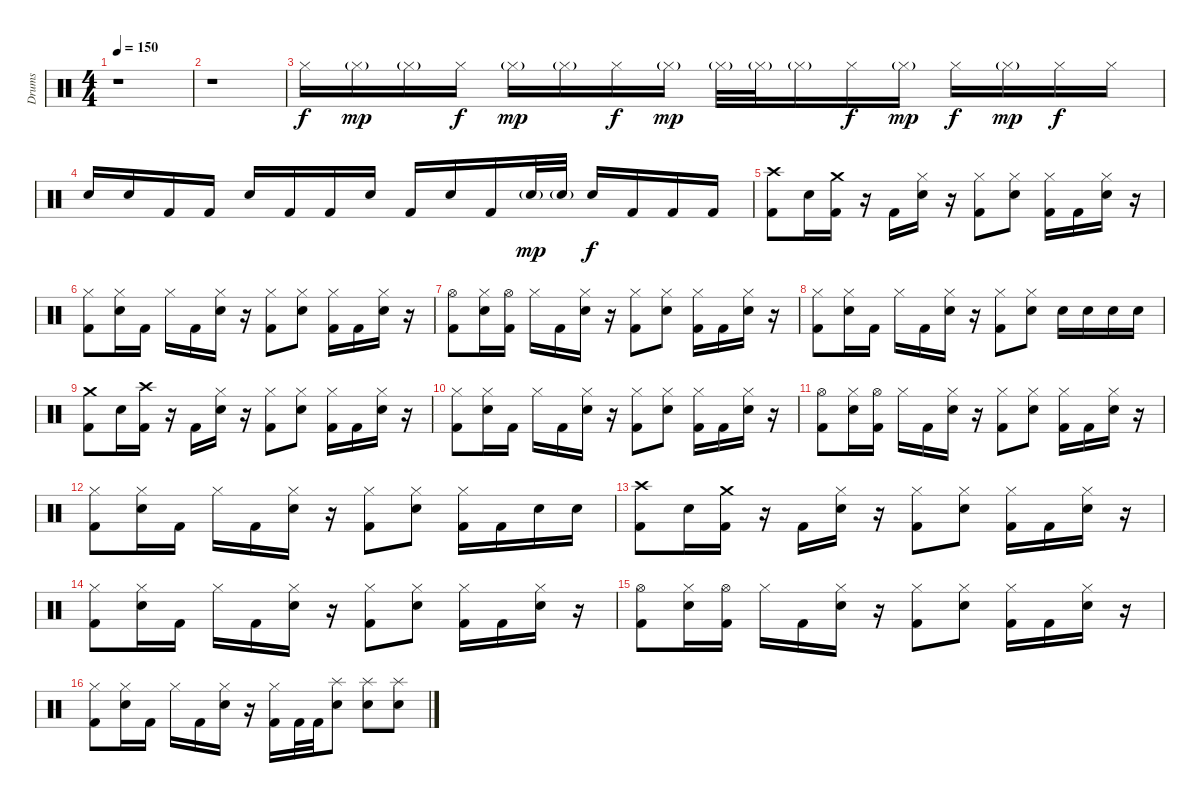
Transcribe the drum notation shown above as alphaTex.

\track ("Drums" "Drums") {instrument percussion}
\staff {score}
\articulation defaults
\ts (4 4)
\tempo 150
\clef neutral
\ks c
r.1{dy f} |
r.1 |
"Hi-Hat (closed)".16 "Hi-Hat (closed)"{g}.16{dy mp} "Hi-Hat (closed)"{g}.16 "Hi-Hat (closed)".16{dy f} "Hi-Hat (closed)"{g}.16{dy mp} "Hi-Hat (closed)"{g}.16 "Hi-Hat (closed)".16{dy f} "Hi-Hat (closed)"{g}.16{dy mp} "Hi-Hat (closed)"{g}.32 "Hi-Hat (closed)"{g}.32 "Hi-Hat (closed)"{g}.16 "Hi-Hat (closed)".16{dy f} "Hi-Hat (closed)"{g}.16{dy mp} "Hi-Hat (closed)".16{dy f} "Hi-Hat (closed)"{g}.16{dy mp} "Hi-Hat (closed)".16{dy f} "Hi-Hat (closed)".16 |
"Snare (hit) 2".16 "Snare (hit) 2".16 "Kick (hit) 2".16 "Kick (hit) 2".16 "Snare (hit) 2".16 "Kick (hit) 2".16 "Kick (hit) 2".16 "Snare (hit) 2".16 "Kick (hit) 2".16 "Snare (hit) 2".16 "Kick (hit) 2".16 "Snare (hit) 2"{g}.32{dy mp} "Snare (hit) 2"{g}.32 "Snare (hit) 2".16{dy f} "Kick (hit) 2".16 "Kick (hit) 2".16 "Kick (hit) 2".16 |
("Crash high (hit)" "Kick (hit) 2").8 "Snare (hit) 2".16 ("Crash medium (hit)" "Kick (hit) 2").16 r.16 "Kick (hit) 2".16 ("Hi-Hat (closed)" "Snare (hit) 2").16 r.16 ("Hi-Hat (closed)" "Kick (hit) 2").8 ("Hi-Hat (closed)" "Snare (hit) 2").8 ("Hi-Hat (closed)" "Kick (hit) 2").16 "Kick (hit) 2".16 ("Hi-Hat (closed)" "Snare (hit) 2").16 r.16 |
("Hi-Hat (closed)" "Kick (hit) 2").8 ("Hi-Hat (closed)" "Snare (hit) 2").16 "Kick (hit) 2".16 "Hi-Hat (closed)".16 "Kick (hit) 2".16 ("Hi-Hat (closed)" "Snare (hit) 2").16 r.16 ("Hi-Hat (closed)" "Kick (hit) 2").8 ("Hi-Hat (closed)" "Snare (hit) 2").8 ("Hi-Hat (closed)" "Kick (hit) 2").16 "Kick (hit) 2".16 ("Hi-Hat (closed)" "Snare (hit) 2").16 r.16 |
("Hi-Hat (open)" "Kick (hit) 2").8 ("Hi-Hat (closed)" "Snare (hit) 2").16 ("Hi-Hat (open)" "Kick (hit) 2").16 "Hi-Hat (closed)".16 "Kick (hit) 2".16 ("Hi-Hat (closed)" "Snare (hit) 2").16 r.16 ("Hi-Hat (closed)" "Kick (hit) 2").8 ("Hi-Hat (closed)" "Snare (hit) 2").8 ("Hi-Hat (closed)" "Kick (hit) 2").16 "Kick (hit) 2".16 ("Hi-Hat (closed)" "Snare (hit) 2").16 r.16 |
("Hi-Hat (closed)" "Kick (hit) 2").8 ("Hi-Hat (closed)" "Snare (hit) 2").16 "Kick (hit) 2".16 "Hi-Hat (closed)".16 "Kick (hit) 2".16 ("Hi-Hat (closed)" "Snare (hit) 2").16 r.16 ("Hi-Hat (closed)" "Kick (hit) 2").8 ("Hi-Hat (closed)" "Snare (hit) 2").8 "Snare (hit) 2".16 "Snare (hit) 2".16 "Snare (hit) 2".16 "Snare (hit) 2".16 |
("Crash medium (hit)" "Kick (hit) 2").8 "Snare (hit) 2".16 ("Crash high (hit)" "Kick (hit) 2").16 r.16 "Kick (hit) 2".16 ("Hi-Hat (closed)" "Snare (hit) 2").16 r.16 ("Hi-Hat (closed)" "Kick (hit) 2").8 ("Hi-Hat (closed)" "Snare (hit) 2").8 ("Hi-Hat (closed)" "Kick (hit) 2").16 "Kick (hit) 2".16 ("Hi-Hat (closed)" "Snare (hit) 2").16 r.16 |
("Hi-Hat (closed)" "Kick (hit) 2").8 ("Hi-Hat (closed)" "Snare (hit) 2").16 "Kick (hit) 2".16 "Hi-Hat (closed)".16 "Kick (hit) 2".16 ("Hi-Hat (closed)" "Snare (hit) 2").16 r.16 ("Hi-Hat (closed)" "Kick (hit) 2").8 ("Hi-Hat (closed)" "Snare (hit) 2").8 ("Hi-Hat (closed)" "Kick (hit) 2").16 "Kick (hit) 2".16 ("Hi-Hat (closed)" "Snare (hit) 2").16 r.16 |
("Hi-Hat (open)" "Kick (hit) 2").8 ("Hi-Hat (closed)" "Snare (hit) 2").16 ("Hi-Hat (open)" "Kick (hit) 2").16 "Hi-Hat (closed)".16 "Kick (hit) 2".16 ("Hi-Hat (closed)" "Snare (hit) 2").16 r.16 ("Hi-Hat (closed)" "Kick (hit) 2").8 ("Hi-Hat (closed)" "Snare (hit) 2").8 ("Hi-Hat (closed)" "Kick (hit) 2").16 "Kick (hit) 2".16 ("Hi-Hat (closed)" "Snare (hit) 2").16 r.16 |
("Hi-Hat (closed)" "Kick (hit) 2").8 ("Hi-Hat (closed)" "Snare (hit) 2").16 "Kick (hit) 2".16 "Hi-Hat (closed)".16 "Kick (hit) 2".16 ("Hi-Hat (closed)" "Snare (hit) 2").16 r.16 ("Hi-Hat (closed)" "Kick (hit) 2").8 ("Hi-Hat (closed)" "Snare (hit) 2").8 ("Hi-Hat (closed)" "Kick (hit) 2").16 "Kick (hit) 2".16 "Snare (hit) 2".16 "Snare (hit) 2".16 |
("Crash high (hit)" "Kick (hit) 2").8 "Snare (hit) 2".16 ("Crash medium (hit)" "Kick (hit) 2").16 r.16 "Kick (hit) 2".16 ("Hi-Hat (closed)" "Snare (hit) 2").16 r.16 ("Hi-Hat (closed)" "Kick (hit) 2").8 ("Hi-Hat (closed)" "Snare (hit) 2").8 ("Hi-Hat (closed)" "Kick (hit) 2").16 "Kick (hit) 2".16 ("Hi-Hat (closed)" "Snare (hit) 2").16 r.16 |
("Hi-Hat (closed)" "Kick (hit) 2").8 ("Hi-Hat (closed)" "Snare (hit) 2").16 "Kick (hit) 2".16 "Hi-Hat (closed)".16 "Kick (hit) 2".16 ("Hi-Hat (closed)" "Snare (hit) 2").16 r.16 ("Hi-Hat (closed)" "Kick (hit) 2").8 ("Hi-Hat (closed)" "Snare (hit) 2").8 ("Hi-Hat (closed)" "Kick (hit) 2").16 "Kick (hit) 2".16 ("Hi-Hat (closed)" "Snare (hit) 2").16 r.16 |
("Hi-Hat (open)" "Kick (hit) 2").8 ("Hi-Hat (closed)" "Snare (hit) 2").16 ("Hi-Hat (open)" "Kick (hit) 2").16 "Hi-Hat (closed)".16 "Kick (hit) 2".16 ("Hi-Hat (closed)" "Snare (hit) 2").16 r.16 ("Hi-Hat (closed)" "Kick (hit) 2").8 ("Hi-Hat (closed)" "Snare (hit) 2").8 ("Hi-Hat (closed)" "Kick (hit) 2").16 "Kick (hit) 2".16 ("Hi-Hat (closed)" "Snare (hit) 2").16 r.16 |
("Hi-Hat (closed)" "Kick (hit) 2").8 ("Hi-Hat (closed)" "Snare (hit) 2").16 "Kick (hit) 2".16 "Hi-Hat (closed)".16 "Kick (hit) 2".16 ("Hi-Hat (closed)" "Snare (hit) 2").16 r.16 ("Hi-Hat (closed)" "Kick (hit) 2").16 "Kick (hit) 2".32 "Kick (hit) 2".32 ("Splash (hit)" "Snare (hit) 2").8 ("Splash (hit)" "Snare (hit) 2").8 ("Splash (hit)" "Snare (hit) 2").8
